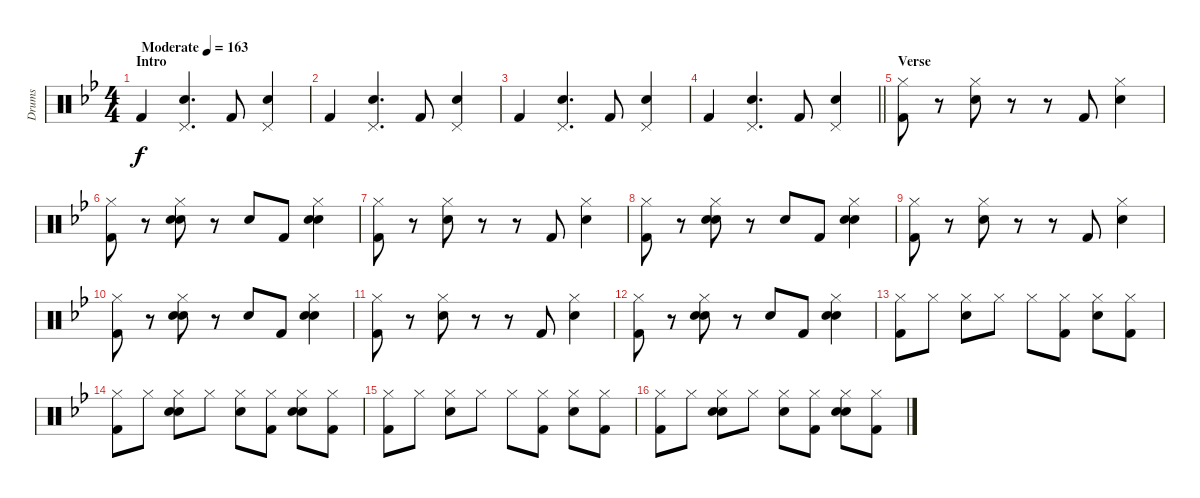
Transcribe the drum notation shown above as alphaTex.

\track ("Drums" "Drums") {instrument percussion}
\staff {score}
\articulation defaults
\ts (4 4)
\section ("" "Intro")
\tempo (163 "Moderate")
\clef neutral
\ks bb "Kick (hit) 2".4{dy f}
("Pedal Hi-Hat (hit)" "Snare (hit) 2").4{d} "Kick (hit) 2".8 ("Pedal Hi-Hat (hit)" "Snare (hit) 2").4 |
"Kick (hit) 2".4 ("Pedal Hi-Hat (hit)" "Snare (hit) 2").4{d} "Kick (hit) 2".8 ("Pedal Hi-Hat (hit)" "Snare (hit) 2").4 |
"Kick (hit) 2".4 ("Pedal Hi-Hat (hit)" "Snare (hit) 2").4{d} "Kick (hit) 2".8 ("Pedal Hi-Hat (hit)" "Snare (hit) 2").4 |
\barLineRight lightlight "Kick (hit) 2".4
("Pedal Hi-Hat (hit)" "Snare (hit) 2").4{d} "Kick (hit) 2".8 ("Pedal Hi-Hat (hit)" "Snare (hit) 2").4 |
\section ("" "Verse")
("Hi-Hat (closed)" "Kick (hit) 2").8 r.8 ("Hi-Hat (closed)" "Snare (hit) 2").8 r.8 r.8 "Kick (hit) 2".8 ("Hi-Hat (closed)" "Snare (hit) 2").4 |
("Hi-Hat (closed)" "Kick (hit) 2").8 r.8 ("Hi-Hat (closed)" "Hand Clap (hit)" "Snare (hit) 2").8 r.8 "Hand Clap (hit)".8 "Kick (hit) 2".8 ("Hi-Hat (closed)" "Hand Clap (hit)" "Snare (hit) 2").4 |
("Hi-Hat (closed)" "Kick (hit) 2").8 r.8 ("Hi-Hat (closed)" "Snare (hit) 2").8 r.8 r.8 "Kick (hit) 2".8 ("Hi-Hat (closed)" "Snare (hit) 2").4 |
("Hi-Hat (closed)" "Kick (hit) 2").8 r.8 ("Hi-Hat (closed)" "Hand Clap (hit)" "Snare (hit) 2").8 r.8 "Hand Clap (hit)".8 "Kick (hit) 2".8 ("Hi-Hat (closed)" "Hand Clap (hit)" "Snare (hit) 2").4 |
("Hi-Hat (closed)" "Kick (hit) 2").8 r.8 ("Hi-Hat (closed)" "Snare (hit) 2").8 r.8 r.8 "Kick (hit) 2".8 ("Hi-Hat (closed)" "Snare (hit) 2").4 |
("Hi-Hat (closed)" "Kick (hit) 2").8 r.8 ("Hi-Hat (closed)" "Hand Clap (hit)" "Snare (hit) 2").8 r.8 "Hand Clap (hit)".8 "Kick (hit) 2".8 ("Hi-Hat (closed)" "Hand Clap (hit)" "Snare (hit) 2").4 |
("Hi-Hat (closed)" "Kick (hit) 2").8 r.8 ("Hi-Hat (closed)" "Snare (hit) 2").8 r.8 r.8 "Kick (hit) 2".8 ("Hi-Hat (closed)" "Snare (hit) 2").4 |
("Hi-Hat (closed)" "Kick (hit) 2").8 r.8 ("Hi-Hat (closed)" "Hand Clap (hit)" "Snare (hit) 2").8 r.8 "Hand Clap (hit)".8 "Kick (hit) 2".8 ("Hi-Hat (closed)" "Hand Clap (hit)" "Snare (hit) 2").4 |
("Hi-Hat (closed)" "Kick (hit) 2").8 "Hi-Hat (closed)".8 ("Hi-Hat (closed)" "Snare (hit) 2").8 "Hi-Hat (closed)".8 "Hi-Hat (closed)".8 ("Hi-Hat (closed)" "Kick (hit) 2").8 ("Hi-Hat (closed)" "Snare (hit) 2").8 ("Hi-Hat (closed)" "Kick (hit) 2").8 |
("Hi-Hat (closed)" "Kick (hit) 2").8 "Hi-Hat (closed)".8 ("Hi-Hat (closed)" "Hand Clap (hit)" "Snare (hit) 2").8 "Hi-Hat (closed)".8 ("Hi-Hat (closed)" "Hand Clap (hit)").8 ("Hi-Hat (closed)" "Kick (hit) 2").8 ("Hi-Hat (closed)" "Hand Clap (hit)" "Snare (hit) 2").8 ("Hi-Hat (closed)" "Kick (hit) 2").8 |
("Hi-Hat (closed)" "Kick (hit) 2").8 "Hi-Hat (closed)".8 ("Hi-Hat (closed)" "Snare (hit) 2").8 "Hi-Hat (closed)".8 "Hi-Hat (closed)".8 ("Hi-Hat (closed)" "Kick (hit) 2").8 ("Hi-Hat (closed)" "Snare (hit) 2").8 ("Hi-Hat (closed)" "Kick (hit) 2").8 |
("Hi-Hat (closed)" "Kick (hit) 2").8 "Hi-Hat (closed)".8 ("Hi-Hat (closed)" "Hand Clap (hit)" "Snare (hit) 2").8 "Hi-Hat (closed)".8 ("Hi-Hat (closed)" "Hand Clap (hit)").8 ("Hi-Hat (closed)" "Kick (hit) 2").8 ("Hi-Hat (closed)" "Hand Clap (hit)" "Snare (hit) 2").8 ("Hi-Hat (closed)" "Kick (hit) 2").8
